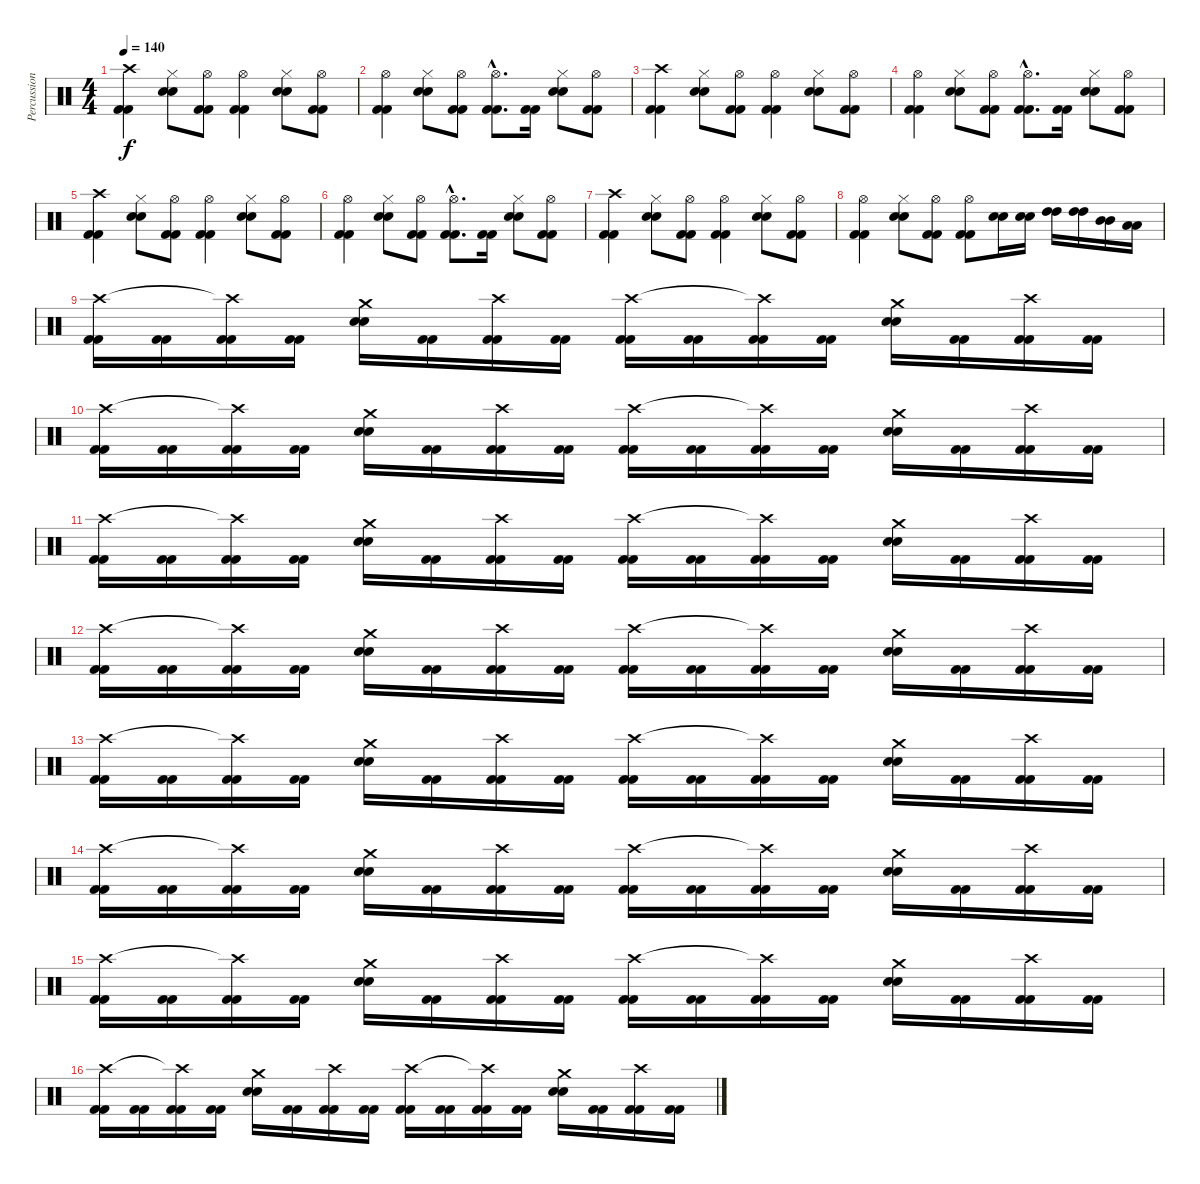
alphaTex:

\track ("Percussion" "Percussion") {instrument percussion}
\staff {score}
\articulation defaults
\ts (4 4)
\tempo 140
\clef neutral
\ks c
("Kick (hit) 2" "Kick (hit) 2" "Crash high (hit)").4{dy f} ("Snare (hit) 2" "Snare (hit) 2" "Hi-Hat (closed)").8 ("Kick (hit) 2" "Kick (hit) 2" "Hi-Hat (open)").8 ("Kick (hit) 2" "Kick (hit) 2" "Hi-Hat (open)").4 ("Snare (hit) 2" "Snare (hit) 2" "Hi-Hat (closed)").8 ("Kick (hit) 2" "Kick (hit) 2" "Hi-Hat (open)").8 |
("Kick (hit) 2" "Kick (hit) 2" "Hi-Hat (open)").4 ("Snare (hit) 2" "Snare (hit) 2" "Hi-Hat (closed)").8 ("Kick (hit) 2" "Kick (hit) 2" "Hi-Hat (open)").8 ("Kick (hit) 2"{hac} "Kick (hit) 2"{hac} "Hi-Hat (open)"{hac}).8{d} ("Kick (hit) 2" "Kick (hit) 2").16 ("Snare (hit) 2" "Snare (hit) 2" "Hi-Hat (closed)").8 ("Kick (hit) 2" "Kick (hit) 2" "Hi-Hat (open)").8 |
("Kick (hit) 2" "Kick (hit) 2" "Crash high (hit)").4 ("Snare (hit) 2" "Snare (hit) 2" "Hi-Hat (closed)").8 ("Kick (hit) 2" "Kick (hit) 2" "Hi-Hat (open)").8 ("Kick (hit) 2" "Kick (hit) 2" "Hi-Hat (open)").4 ("Snare (hit) 2" "Snare (hit) 2" "Hi-Hat (closed)").8 ("Kick (hit) 2" "Kick (hit) 2" "Hi-Hat (open)").8 |
("Kick (hit) 2" "Kick (hit) 2" "Hi-Hat (open)").4 ("Snare (hit) 2" "Snare (hit) 2" "Hi-Hat (closed)").8 ("Kick (hit) 2" "Kick (hit) 2" "Hi-Hat (open)").8 ("Kick (hit) 2"{hac} "Kick (hit) 2"{hac} "Hi-Hat (open)"{hac}).8{d} ("Kick (hit) 2" "Kick (hit) 2").16 ("Snare (hit) 2" "Snare (hit) 2" "Hi-Hat (closed)").8 ("Kick (hit) 2" "Kick (hit) 2" "Hi-Hat (open)").8 |
("Kick (hit) 2" "Kick (hit) 2" "Crash high (hit)").4 ("Snare (hit) 2" "Snare (hit) 2" "Hi-Hat (closed)").8 ("Kick (hit) 2" "Kick (hit) 2" "Hi-Hat (open)").8 ("Kick (hit) 2" "Kick (hit) 2" "Hi-Hat (open)").4 ("Snare (hit) 2" "Snare (hit) 2" "Hi-Hat (closed)").8 ("Kick (hit) 2" "Kick (hit) 2" "Hi-Hat (open)").8 |
("Kick (hit) 2" "Kick (hit) 2" "Hi-Hat (open)").4 ("Snare (hit) 2" "Snare (hit) 2" "Hi-Hat (closed)").8 ("Kick (hit) 2" "Kick (hit) 2" "Hi-Hat (open)").8 ("Kick (hit) 2"{hac} "Kick (hit) 2"{hac} "Hi-Hat (open)"{hac}).8{d} ("Kick (hit) 2" "Kick (hit) 2").16 ("Snare (hit) 2" "Snare (hit) 2" "Hi-Hat (closed)").8 ("Kick (hit) 2" "Kick (hit) 2" "Hi-Hat (open)").8 |
("Kick (hit) 2" "Kick (hit) 2" "Crash high (hit)").4 ("Snare (hit) 2" "Snare (hit) 2" "Hi-Hat (closed)").8 ("Kick (hit) 2" "Kick (hit) 2" "Hi-Hat (open)").8 ("Kick (hit) 2" "Kick (hit) 2" "Hi-Hat (open)").4 ("Snare (hit) 2" "Snare (hit) 2" "Hi-Hat (closed)").8 ("Kick (hit) 2" "Kick (hit) 2" "Hi-Hat (open)").8 |
("Kick (hit) 2" "Kick (hit) 2" "Hi-Hat (open)").4 ("Snare (hit) 2" "Snare (hit) 2" "Hi-Hat (closed)").8 ("Kick (hit) 2" "Kick (hit) 2" "Hi-Hat (open)").8 ("Kick (hit) 2" "Kick (hit) 2" "Hi-Hat (open)").8 ("Snare (hit) 2" "Snare (hit) 2").16 ("Snare (hit) 2" "Snare (hit) 2").16 ("High Tom (hit)" "High Tom (hit)").16 ("High Tom (hit)" "High Tom (hit)").16 ("Mid Tom (hit)" "Mid Tom (hit)").16 ("Low Tom (hit)" "Low Tom (hit)").16 |
("Kick (hit) 2" "Kick (hit) 2" "Crash high (hit)").16 ("Kick (hit) 2" "Kick (hit) 2").16 ("Kick (hit) 2" "Kick (hit) 2" "Crash high (hit)"{t}).16 ("Kick (hit) 2" "Kick (hit) 2").16 ("Snare (hit) 2" "Snare (hit) 2" "Crash medium (hit)").16 ("Kick (hit) 2" "Kick (hit) 2").16 ("Kick (hit) 2" "Kick (hit) 2" "Crash high (hit)").16 ("Kick (hit) 2" "Kick (hit) 2").16 ("Kick (hit) 2" "Kick (hit) 2" "Crash high (hit)").16 ("Kick (hit) 2" "Kick (hit) 2").16 ("Kick (hit) 2" "Kick (hit) 2" "Crash high (hit)"{t}).16 ("Kick (hit) 2" "Kick (hit) 2").16 ("Snare (hit) 2" "Snare (hit) 2" "Crash medium (hit)").16 ("Kick (hit) 2" "Kick (hit) 2").16 ("Kick (hit) 2" "Kick (hit) 2" "Crash high (hit)").16 ("Kick (hit) 2" "Kick (hit) 2").16 |
("Kick (hit) 2" "Kick (hit) 2" "Crash high (hit)").16 ("Kick (hit) 2" "Kick (hit) 2").16 ("Kick (hit) 2" "Kick (hit) 2" "Crash high (hit)"{t}).16 ("Kick (hit) 2" "Kick (hit) 2").16 ("Snare (hit) 2" "Snare (hit) 2" "Crash medium (hit)").16 ("Kick (hit) 2" "Kick (hit) 2").16 ("Kick (hit) 2" "Kick (hit) 2" "Crash high (hit)").16 ("Kick (hit) 2" "Kick (hit) 2").16 ("Kick (hit) 2" "Kick (hit) 2" "Crash high (hit)").16 ("Kick (hit) 2" "Kick (hit) 2").16 ("Kick (hit) 2" "Kick (hit) 2" "Crash high (hit)"{t}).16 ("Kick (hit) 2" "Kick (hit) 2").16 ("Snare (hit) 2" "Snare (hit) 2" "Crash medium (hit)").16 ("Kick (hit) 2" "Kick (hit) 2").16 ("Kick (hit) 2" "Kick (hit) 2" "Crash high (hit)").16 ("Kick (hit) 2" "Kick (hit) 2").16 |
("Kick (hit) 2" "Kick (hit) 2" "Crash high (hit)").16 ("Kick (hit) 2" "Kick (hit) 2").16 ("Kick (hit) 2" "Kick (hit) 2" "Crash high (hit)"{t}).16 ("Kick (hit) 2" "Kick (hit) 2").16 ("Snare (hit) 2" "Snare (hit) 2" "Crash medium (hit)").16 ("Kick (hit) 2" "Kick (hit) 2").16 ("Kick (hit) 2" "Kick (hit) 2" "Crash high (hit)").16 ("Kick (hit) 2" "Kick (hit) 2").16 ("Kick (hit) 2" "Kick (hit) 2" "Crash high (hit)").16 ("Kick (hit) 2" "Kick (hit) 2").16 ("Kick (hit) 2" "Kick (hit) 2" "Crash high (hit)"{t}).16 ("Kick (hit) 2" "Kick (hit) 2").16 ("Snare (hit) 2" "Snare (hit) 2" "Crash medium (hit)").16 ("Kick (hit) 2" "Kick (hit) 2").16 ("Kick (hit) 2" "Kick (hit) 2" "Crash high (hit)").16 ("Kick (hit) 2" "Kick (hit) 2").16 |
("Kick (hit) 2" "Kick (hit) 2" "Crash high (hit)").16 ("Kick (hit) 2" "Kick (hit) 2").16 ("Kick (hit) 2" "Kick (hit) 2" "Crash high (hit)"{t}).16 ("Kick (hit) 2" "Kick (hit) 2").16 ("Snare (hit) 2" "Snare (hit) 2" "Crash medium (hit)").16 ("Kick (hit) 2" "Kick (hit) 2").16 ("Kick (hit) 2" "Kick (hit) 2" "Crash high (hit)").16 ("Kick (hit) 2" "Kick (hit) 2").16 ("Kick (hit) 2" "Kick (hit) 2" "Crash high (hit)").16 ("Kick (hit) 2" "Kick (hit) 2").16 ("Kick (hit) 2" "Kick (hit) 2" "Crash high (hit)"{t}).16 ("Kick (hit) 2" "Kick (hit) 2").16 ("Snare (hit) 2" "Snare (hit) 2" "Crash medium (hit)").16 ("Kick (hit) 2" "Kick (hit) 2").16 ("Kick (hit) 2" "Kick (hit) 2" "Crash high (hit)").16 ("Kick (hit) 2" "Kick (hit) 2").16 |
("Kick (hit) 2" "Kick (hit) 2" "Crash high (hit)").16 ("Kick (hit) 2" "Kick (hit) 2").16 ("Kick (hit) 2" "Kick (hit) 2" "Crash high (hit)"{t}).16 ("Kick (hit) 2" "Kick (hit) 2").16 ("Snare (hit) 2" "Snare (hit) 2" "Crash medium (hit)").16 ("Kick (hit) 2" "Kick (hit) 2").16 ("Kick (hit) 2" "Kick (hit) 2" "Crash high (hit)").16 ("Kick (hit) 2" "Kick (hit) 2").16 ("Kick (hit) 2" "Kick (hit) 2" "Crash high (hit)").16 ("Kick (hit) 2" "Kick (hit) 2").16 ("Kick (hit) 2" "Kick (hit) 2" "Crash high (hit)"{t}).16 ("Kick (hit) 2" "Kick (hit) 2").16 ("Snare (hit) 2" "Snare (hit) 2" "Crash medium (hit)").16 ("Kick (hit) 2" "Kick (hit) 2").16 ("Kick (hit) 2" "Kick (hit) 2" "Crash high (hit)").16 ("Kick (hit) 2" "Kick (hit) 2").16 |
("Kick (hit) 2" "Kick (hit) 2" "Crash high (hit)").16 ("Kick (hit) 2" "Kick (hit) 2").16 ("Kick (hit) 2" "Kick (hit) 2" "Crash high (hit)"{t}).16 ("Kick (hit) 2" "Kick (hit) 2").16 ("Snare (hit) 2" "Snare (hit) 2" "Crash medium (hit)").16 ("Kick (hit) 2" "Kick (hit) 2").16 ("Kick (hit) 2" "Kick (hit) 2" "Crash high (hit)").16 ("Kick (hit) 2" "Kick (hit) 2").16 ("Kick (hit) 2" "Kick (hit) 2" "Crash high (hit)").16 ("Kick (hit) 2" "Kick (hit) 2").16 ("Kick (hit) 2" "Kick (hit) 2" "Crash high (hit)"{t}).16 ("Kick (hit) 2" "Kick (hit) 2").16 ("Snare (hit) 2" "Snare (hit) 2" "Crash medium (hit)").16 ("Kick (hit) 2" "Kick (hit) 2").16 ("Kick (hit) 2" "Kick (hit) 2" "Crash high (hit)").16 ("Kick (hit) 2" "Kick (hit) 2").16 |
("Kick (hit) 2" "Kick (hit) 2" "Crash high (hit)").16 ("Kick (hit) 2" "Kick (hit) 2").16 ("Kick (hit) 2" "Kick (hit) 2" "Crash high (hit)"{t}).16 ("Kick (hit) 2" "Kick (hit) 2").16 ("Snare (hit) 2" "Snare (hit) 2" "Crash medium (hit)").16 ("Kick (hit) 2" "Kick (hit) 2").16 ("Kick (hit) 2" "Kick (hit) 2" "Crash high (hit)").16 ("Kick (hit) 2" "Kick (hit) 2").16 ("Kick (hit) 2" "Kick (hit) 2" "Crash high (hit)").16 ("Kick (hit) 2" "Kick (hit) 2").16 ("Kick (hit) 2" "Kick (hit) 2" "Crash high (hit)"{t}).16 ("Kick (hit) 2" "Kick (hit) 2").16 ("Snare (hit) 2" "Snare (hit) 2" "Crash medium (hit)").16 ("Kick (hit) 2" "Kick (hit) 2").16 ("Kick (hit) 2" "Kick (hit) 2" "Crash high (hit)").16 ("Kick (hit) 2" "Kick (hit) 2").16 |
("Kick (hit) 2" "Kick (hit) 2" "Crash high (hit)").16 ("Kick (hit) 2" "Kick (hit) 2").16 ("Kick (hit) 2" "Kick (hit) 2" "Crash high (hit)"{t}).16 ("Kick (hit) 2" "Kick (hit) 2").16 ("Snare (hit) 2" "Snare (hit) 2" "Crash medium (hit)").16 ("Kick (hit) 2" "Kick (hit) 2").16 ("Kick (hit) 2" "Kick (hit) 2" "Crash high (hit)").16 ("Kick (hit) 2" "Kick (hit) 2").16 ("Kick (hit) 2" "Kick (hit) 2" "Crash high (hit)").16 ("Kick (hit) 2" "Kick (hit) 2").16 ("Kick (hit) 2" "Kick (hit) 2" "Crash high (hit)"{t}).16 ("Kick (hit) 2" "Kick (hit) 2").16 ("Snare (hit) 2" "Snare (hit) 2" "Crash medium (hit)").16 ("Kick (hit) 2" "Kick (hit) 2").16 ("Kick (hit) 2" "Kick (hit) 2" "Crash high (hit)").16 ("Kick (hit) 2" "Kick (hit) 2").16
